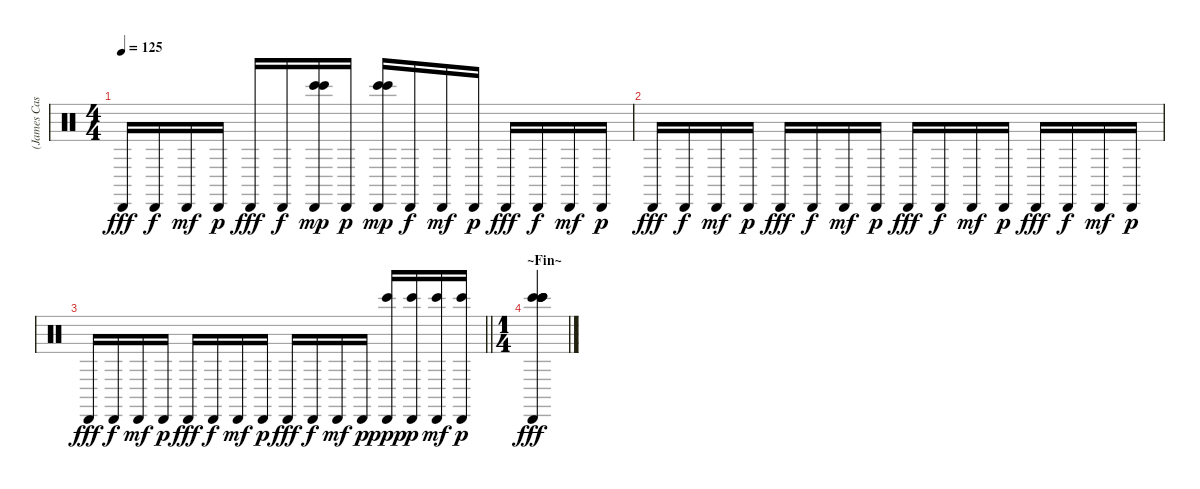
\track ("(James Cassells) Drums" "(James Cas") {instrument percussion}
\staff {score}
\articulation defaults
\ts (4 4)
\tempo 125
\clef neutral
\ks c "Cabasa (hit)".16{dy fff} "Cabasa (hit)".16{dy f} "Cabasa (hit)".16{dy mf} "Cabasa (hit)".16{dy p} "Cabasa (hit)".16{dy fff} "Cabasa (hit)".16{dy f}
("Cabasa (hit)" "Bongo High (hit)" "Bongo High (hit)").16{dy mp} "Cabasa (hit)".16{dy p} ("Cabasa (hit)" "Bongo High (hit)" "Bongo High (hit)").16{dy mp} "Cabasa (hit)".16{dy f} "Cabasa (hit)".16{dy mf} "Cabasa (hit)".16{dy p} "Cabasa (hit)".16{dy fff} "Cabasa (hit)".16{dy f} "Cabasa (hit)".16{dy mf} "Cabasa (hit)".16{dy p} |
"Cabasa (hit)".16{dy fff} "Cabasa (hit)".16{dy f} "Cabasa (hit)".16{dy mf} "Cabasa (hit)".16{dy p} "Cabasa (hit)".16{dy fff} "Cabasa (hit)".16{dy f} "Cabasa (hit)".16{dy mf} "Cabasa (hit)".16{dy p} "Cabasa (hit)".16{dy fff} "Cabasa (hit)".16{dy f} "Cabasa (hit)".16{dy mf} "Cabasa (hit)".16{dy p} "Cabasa (hit)".16{dy fff} "Cabasa (hit)".16{dy f} "Cabasa (hit)".16{dy mf} "Cabasa (hit)".16{dy p} |
\barLineRight lightlight "Cabasa (hit)".16{dy fff} "Cabasa (hit)".16{dy f} "Cabasa (hit)".16{dy mf} "Cabasa (hit)".16{dy p} "Cabasa (hit)".16{dy fff} "Cabasa (hit)".16{dy f} "Cabasa (hit)".16{dy mf} "Cabasa (hit)".16{dy p} "Cabasa (hit)".16{dy fff} "Cabasa (hit)".16{dy f} "Cabasa (hit)".16{dy mf} "Cabasa (hit)".16{dy p}
("Cabasa (hit)" "Bongo High (hit)").16{dy ppp} ("Cabasa (hit)" "Bongo High (hit)").16{dy p} ("Cabasa (hit)" "Bongo High (hit)").16{dy mf} ("Cabasa (hit)" "Bongo High (hit)").16{dy p} |
\ts (1 4)
\section ("" "~Fin~")
("Cabasa (hit)" "Bongo High (hit)" "Bongo High (hit)" "Bongo High (hit)" "Bongo High (hit)").4{dy fff}
